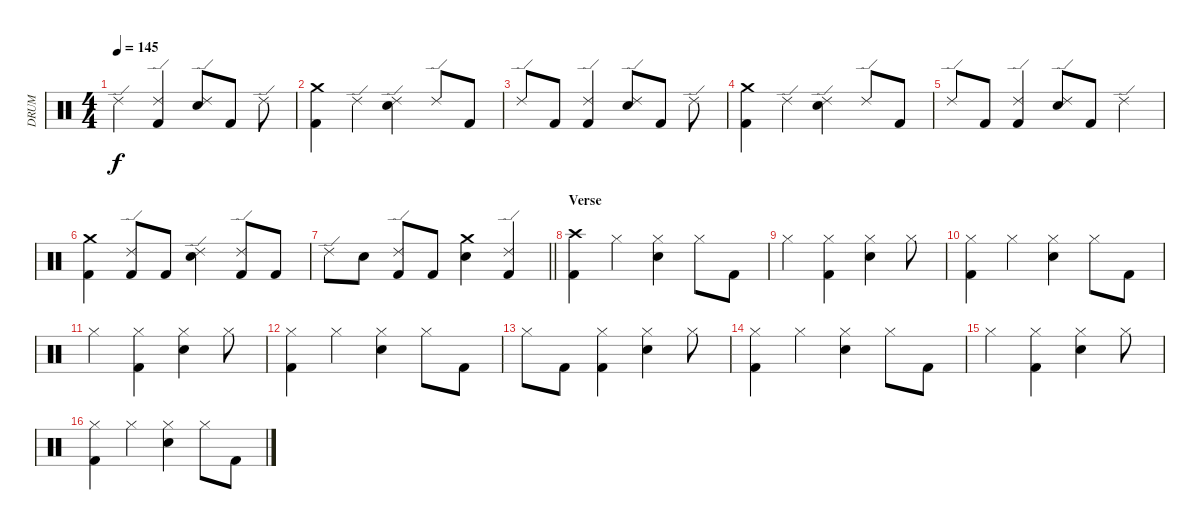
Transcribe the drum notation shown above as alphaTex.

\track ("DRUM" "DRUM") {instrument percussion}
\staff {score}
\articulation defaults
\ts (4 4)
\tempo 145
\clef neutral
\ks c "Ride (edge) 2".4{dy f}
("Ride (edge) 2" "Kick (hit) 2").4 ("Ride (edge) 2" "Electric Snare (hit)").8 "Kick (hit) 2".8 "Ride (edge) 2".8 |
("Crash medium (hit)" "Kick (hit) 2").4 "Ride (edge) 2".4 ("Ride (edge) 2" "Electric Snare (hit)").4 "Ride (edge) 2".8 "Kick (hit) 2".8 |
"Ride (edge) 2".8 "Kick (hit) 2".8 ("Ride (edge) 2" "Kick (hit) 2").4 ("Ride (edge) 2" "Electric Snare (hit)").8 "Kick (hit) 2".8 "Ride (edge) 2".8 |
("Crash medium (hit)" "Kick (hit) 2").4 "Ride (edge) 2".4 ("Ride (edge) 2" "Electric Snare (hit)").4 "Ride (edge) 2".8 "Kick (hit) 2".8 |
"Ride (edge) 2".8 "Kick (hit) 2".8 ("Ride (edge) 2" "Kick (hit) 2").4 ("Ride (edge) 2" "Electric Snare (hit)").8 "Kick (hit) 2".8 "Ride (edge) 2".4 |
("Crash medium (hit)" "Kick (hit) 2").4 ("Ride (edge) 2" "Kick (hit) 2").8 "Kick (hit) 2".8 ("Ride (edge) 2" "Electric Snare (hit)").4 ("Ride (edge) 2" "Kick (hit) 2").8 "Kick (hit) 2".8 |
\barLineRight lightlight "Ride (edge) 2".8 "Electric Snare (hit)".8
("Ride (edge) 2" "Kick (hit) 2").8 "Kick (hit) 2".8 ("Crash medium (hit)" "Electric Snare (hit)").4 ("Ride (edge) 2" "Kick (hit) 2").4 |
\section ("" "Verse")
("Crash high (hit)" "Kick (hit) 2").4 "Hi-Hat (closed)".4 ("Hi-Hat (closed)" "Electric Snare (hit)").4 "Hi-Hat (closed)".8 "Kick (hit) 2".8 |
"Hi-Hat (closed)".4 ("Hi-Hat (closed)" "Kick (hit) 2").4 ("Hi-Hat (closed)" "Electric Snare (hit)").4 "Hi-Hat (closed)".8 |
("Hi-Hat (closed)" "Kick (hit) 2").4 "Hi-Hat (closed)".4 ("Hi-Hat (closed)" "Electric Snare (hit)").4 "Hi-Hat (closed)".8 "Kick (hit) 2".8 |
"Hi-Hat (closed)".4 ("Hi-Hat (closed)" "Kick (hit) 2").4 ("Hi-Hat (closed)" "Electric Snare (hit)").4 "Hi-Hat (closed)".8 |
("Hi-Hat (closed)" "Kick (hit) 2").4 "Hi-Hat (closed)".4 ("Hi-Hat (closed)" "Electric Snare (hit)").4 "Hi-Hat (closed)".8 "Kick (hit) 2".8 |
"Hi-Hat (closed)".8 "Kick (hit) 2".8 ("Hi-Hat (closed)" "Kick (hit) 2").4 ("Hi-Hat (closed)" "Electric Snare (hit)").4 "Hi-Hat (closed)".8 |
("Hi-Hat (closed)" "Kick (hit) 2").4 "Hi-Hat (closed)".4 ("Hi-Hat (closed)" "Electric Snare (hit)").4 "Hi-Hat (closed)".8 "Kick (hit) 2".8 |
"Hi-Hat (closed)".4 ("Hi-Hat (closed)" "Kick (hit) 2").4 ("Hi-Hat (closed)" "Electric Snare (hit)").4 "Hi-Hat (closed)".8 |
("Hi-Hat (closed)" "Kick (hit) 2").4 "Hi-Hat (closed)".4 ("Hi-Hat (closed)" "Electric Snare (hit)").4 "Hi-Hat (closed)".8 "Kick (hit) 2".8
